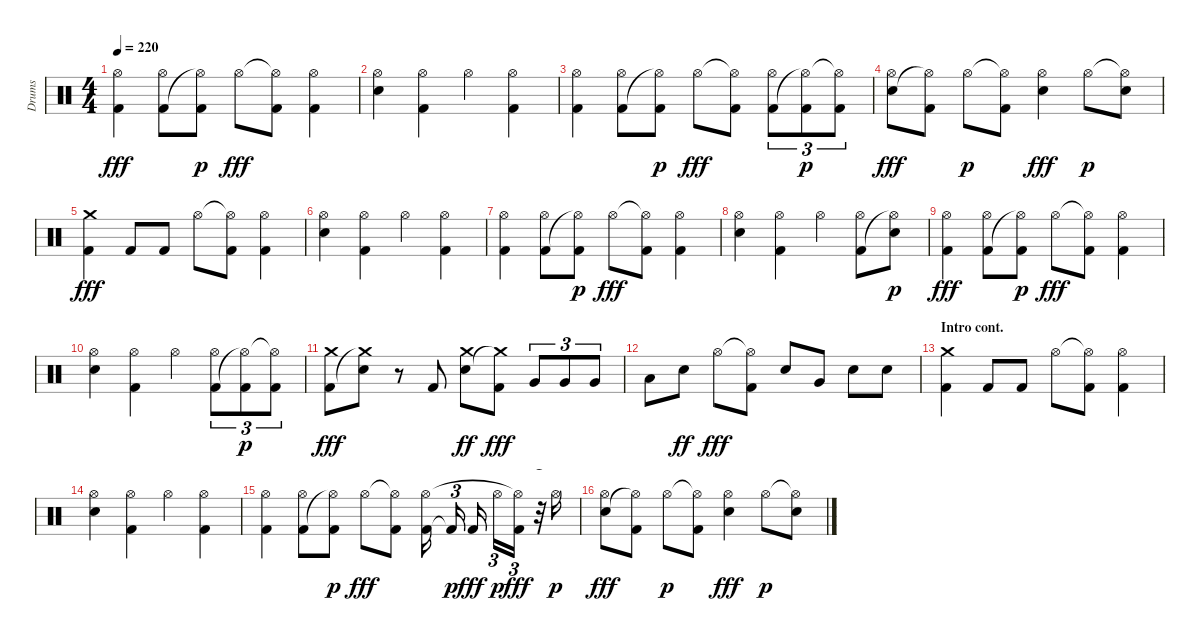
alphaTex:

\track ("Drums" "Drums") {instrument percussion}
\staff {score}
\articulation defaults
\ts (4 4)
\tempo 220
\clef neutral
\ks aminor
("Kick (hit) 2" "Hi-Hat (open)").4{dy fff} ("Kick (hit) 2" "Hi-Hat (open)").8 ("Hi-Hat (open)"{t} "Kick (hit) 2").8{dy p} "Hi-Hat (open)".8{dy fff} ("Hi-Hat (open)"{t} "Kick (hit) 2").8 ("Kick (hit) 2" "Hi-Hat (open)").4 |
("Snare (hit) 2" "Hi-Hat (open)").4 ("Kick (hit) 2" "Hi-Hat (open)").4 "Hi-Hat (open)".4 ("Kick (hit) 2" "Hi-Hat (open)").4 |
("Kick (hit) 2" "Hi-Hat (open)").4 ("Kick (hit) 2" "Hi-Hat (open)").8 ("Hi-Hat (open)"{t} "Kick (hit) 2").8{dy p} "Hi-Hat (open)".8{dy fff} ("Hi-Hat (open)"{t} "Kick (hit) 2").8 ("Kick (hit) 2" "Hi-Hat (open)").8{tu (3 2)} ("Hi-Hat (open)"{t} "Kick (hit) 2").8{tu (3 2) dy p} ("Hi-Hat (open)"{t} "Kick (hit) 2").8{tu (3 2)} |
("Snare (hit) 2" "Hi-Hat (open)").8{dy fff} ("Hi-Hat (open)"{t} "Kick (hit) 2").8 "Hi-Hat (open)".8{dy p} ("Hi-Hat (open)"{t} "Kick (hit) 2").8 ("Snare (hit) 2" "Hi-Hat (open)").4{dy fff} "Hi-Hat (open)".8{dy p} ("Hi-Hat (open)"{t} "Snare (hit) 2").8 |
("Kick (hit) 2" "Crash medium (hit)").4{dy fff} "Kick (hit) 2".8 "Kick (hit) 2".8 "Hi-Hat (open)".8 ("Hi-Hat (open)"{t} "Kick (hit) 2").8 ("Kick (hit) 2" "Hi-Hat (open)").4 |
("Snare (hit) 2" "Hi-Hat (open)").4 ("Kick (hit) 2" "Hi-Hat (open)").4 "Hi-Hat (open)".4 ("Kick (hit) 2" "Hi-Hat (open)").4 |
("Kick (hit) 2" "Hi-Hat (open)").4 ("Kick (hit) 2" "Hi-Hat (open)").8 ("Hi-Hat (open)"{t} "Kick (hit) 2").8{dy p} "Hi-Hat (open)".8{dy fff} ("Hi-Hat (open)"{t} "Kick (hit) 2").8 ("Kick (hit) 2" "Hi-Hat (open)").4 |
("Snare (hit) 2" "Hi-Hat (open)").4 ("Kick (hit) 2" "Hi-Hat (open)").4 "Hi-Hat (open)".4 ("Kick (hit) 2" "Hi-Hat (open)").8 ("Hi-Hat (open)"{t} "Snare (hit) 2").8{dy p} |
("Kick (hit) 2" "Hi-Hat (open)").4{dy fff} ("Kick (hit) 2" "Hi-Hat (open)").8 ("Hi-Hat (open)"{t} "Kick (hit) 2").8{dy p} "Hi-Hat (open)".8{dy fff} ("Hi-Hat (open)"{t} "Kick (hit) 2").8 ("Kick (hit) 2" "Hi-Hat (open)").4 |
("Snare (hit) 2" "Hi-Hat (open)").4 ("Kick (hit) 2" "Hi-Hat (open)").4 "Hi-Hat (open)".4 ("Kick (hit) 2" "Hi-Hat (open)").8{tu (3 2)} ("Hi-Hat (open)"{t} "Kick (hit) 2").8{tu (3 2) dy p} ("Hi-Hat (open)"{t} "Kick (hit) 2").8{tu (3 2)} |
("Kick (hit) 2" "Crash medium (hit)").8{dy fff} ("Crash medium (hit)"{t} "Snare (hit) 2").8 r.8 "Kick (hit) 2".8 ("Snare (hit) 2" "Crash medium (hit)").8{dy ff} ("Crash medium (hit)"{t} "Kick (hit) 2").8{dy fff} "Very Low Tom (hit)".8{tu (3 2)} "Very Low Tom (hit)".8{tu (3 2)} "Very Low Tom (hit)".8{tu (3 2)} |
"Low Floor Tom (hit)".8 "Snare (hit) 2".8{dy ff} "Hi-Hat (open)".8{dy fff} ("Hi-Hat (open)"{t} "Kick (hit) 2").8 "Snare (hit) 2".8 "Very Low Tom (hit)".8 "Snare (hit) 2".8 "Snare (hit) 2".8 |
\section ("" "Intro cont.")
("Kick (hit) 2" "Crash medium (hit)").4 "Kick (hit) 2".8 "Kick (hit) 2".8 "Hi-Hat (open)".8 ("Hi-Hat (open)"{t} "Kick (hit) 2").8 ("Kick (hit) 2" "Hi-Hat (open)").4 |
("Snare (hit) 2" "Hi-Hat (open)").4 ("Kick (hit) 2" "Hi-Hat (open)").4 "Hi-Hat (open)".4 ("Kick (hit) 2" "Hi-Hat (open)").4 |
("Kick (hit) 2" "Hi-Hat (open)").4 ("Kick (hit) 2" "Hi-Hat (open)").8 ("Hi-Hat (open)"{t} "Kick (hit) 2").8{dy p} "Hi-Hat (open)".8{dy fff} ("Hi-Hat (open)"{t} "Kick (hit) 2").8 ("Kick (hit) 2" "Hi-Hat (open)").16 "Kick (hit) 2"{t}.16{tu (3 2) dy p} "Kick (hit) 2".16{dy fff} "Hi-Hat (open)".16{tu (3 2) dy p} ("Kick (hit) 2" "Hi-Hat (open)"{t}).16{tu (3 2) dy fff} r.32{tu (3 2)} "Hi-Hat (open)".16{dy p} |
("Snare (hit) 2" "Hi-Hat (open)").8{dy fff} ("Hi-Hat (open)"{t} "Kick (hit) 2").8 "Hi-Hat (open)".8{dy p} ("Hi-Hat (open)"{t} "Kick (hit) 2").8 ("Snare (hit) 2" "Hi-Hat (open)").4{dy fff} "Hi-Hat (open)".8{dy p} ("Hi-Hat (open)"{t} "Snare (hit) 2").8
